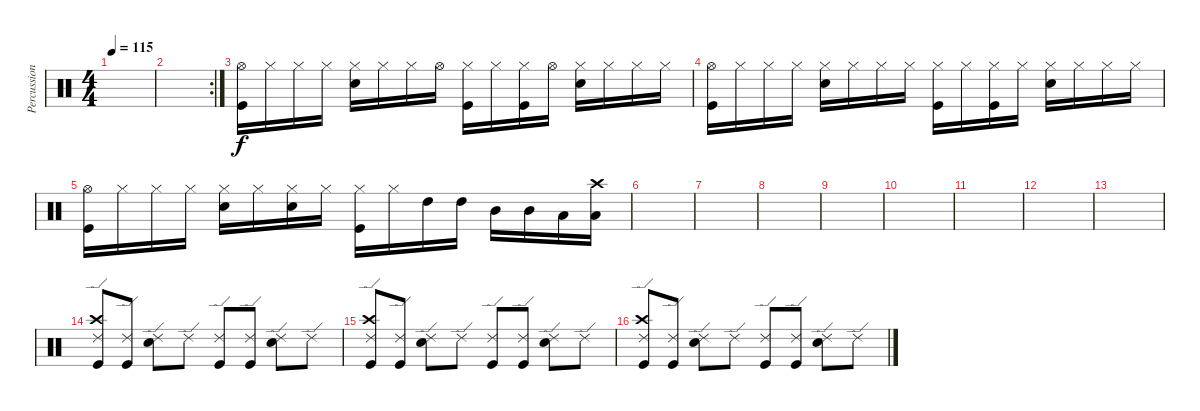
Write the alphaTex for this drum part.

\track ("Percussions" "Percussion") {instrument percussion}
\staff {score}
\articulation defaults
\ts (4 4)
\tempo 115
\clef neutral
\ks c
|
\rc 2
|
("Hi-Hat (open)" "Kick (hit)").16 "Hi-Hat (closed)".16 "Hi-Hat (closed)".16 "Hi-Hat (closed)".16 ("Hi-Hat (closed)" "Snare (hit) 2").16 "Hi-Hat (closed)".16 "Hi-Hat (closed)".16 "Hi-Hat (open)".16 ("Hi-Hat (closed)" "Kick (hit)").16 "Hi-Hat (closed)".16 ("Hi-Hat (closed)" "Kick (hit)").16 "Hi-Hat (open)".16 ("Hi-Hat (closed)" "Snare (hit) 2").16 "Hi-Hat (closed)".16 "Hi-Hat (closed)".16 "Hi-Hat (closed)".16 |
("Hi-Hat (open)" "Kick (hit)").16 "Hi-Hat (closed)".16 "Hi-Hat (closed)".16 "Hi-Hat (closed)".16 ("Hi-Hat (closed)" "Snare (hit) 2").16 "Hi-Hat (closed)".16 "Hi-Hat (closed)".16 "Hi-Hat (closed)".16 ("Hi-Hat (closed)" "Kick (hit)").16 "Hi-Hat (closed)".16 ("Hi-Hat (closed)" "Kick (hit)").16 "Hi-Hat (closed)".16 ("Hi-Hat (closed)" "Snare (hit) 2").16 "Hi-Hat (closed)".16 "Hi-Hat (closed)".16 "Hi-Hat (closed)".16 |
("Hi-Hat (open)" "Kick (hit)").16 "Hi-Hat (closed)".16 "Hi-Hat (closed)".16 "Hi-Hat (closed)".16 ("Hi-Hat (closed)" "Snare (hit) 2").16 "Hi-Hat (closed)".16 ("Hi-Hat (closed)" "Snare (hit) 2").16 "Hi-Hat (closed)".16 ("Hi-Hat (closed)" "Kick (hit)").16 "Hi-Hat (closed)".16 "High Tom (hit)".16 "High Tom (hit)".16 "Mid Tom (hit)".16 "Mid Tom (hit)".16 "Low Tom (hit)".16 ("Crash high (hit)" "Low Tom (hit)").16 |
|
|
|
|
|
|
|
|
("Crash high (hit)" "Ride (edge) 2" "Kick (hit)").8 ("Ride (edge) 2" "Kick (hit)").8 ("Ride (edge) 2" "Snare (hit) 2").8 "Ride (edge) 2".8 ("Ride (edge) 2" "Kick (hit)").8 ("Ride (edge) 2" "Kick (hit)").8 ("Ride (edge) 2" "Snare (hit) 2").8 "Ride (edge) 2".8 |
("Crash high (hit)" "Ride (edge) 2" "Kick (hit)").8 ("Ride (edge) 2" "Kick (hit)").8 ("Ride (edge) 2" "Snare (hit) 2").8 "Ride (edge) 2".8 ("Ride (edge) 2" "Kick (hit)").8 ("Ride (edge) 2" "Kick (hit)").8 ("Ride (edge) 2" "Snare (hit) 2").8 "Ride (edge) 2".8 |
("Crash high (hit)" "Ride (edge) 2" "Kick (hit)").8 ("Ride (edge) 2" "Kick (hit)").8 ("Ride (edge) 2" "Snare (hit) 2").8 "Ride (edge) 2".8 ("Ride (edge) 2" "Kick (hit)").8 ("Ride (edge) 2" "Kick (hit)").8 ("Ride (edge) 2" "Snare (hit) 2").8 "Ride (edge) 2".8
